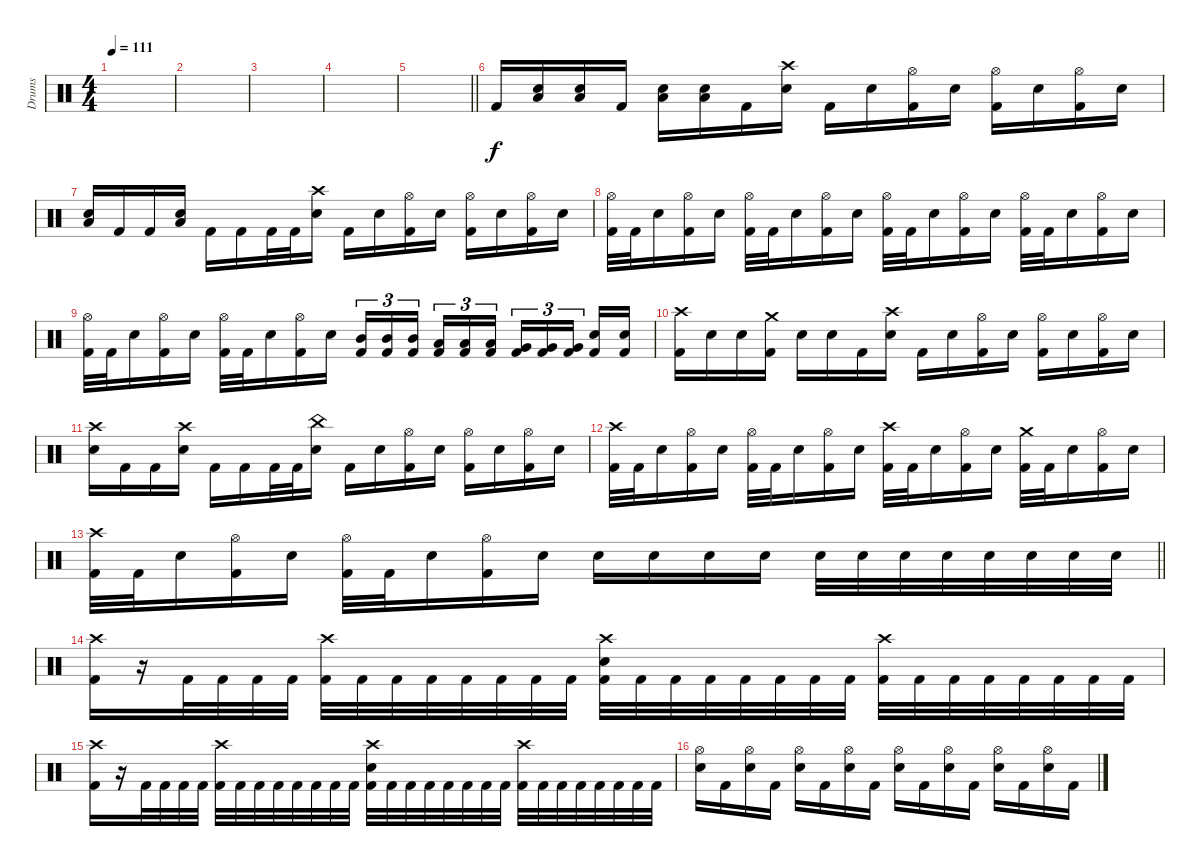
\track ("Drums" "Drums") {instrument percussion}
\staff
\articulation defaults
\ts (4 4)
\section ("" "")
\tempo 111
\clef neutral
\ks c
|
|
|
|
\barLineRight lightlight
|
\section ("" "")
"Kick (hit) 2".16 ("Low Floor Tom (hit)" "Electric Snare (hit)").16 ("Low Floor Tom (hit)" "Electric Snare (hit)").16 "Kick (hit) 2".16 ("Low Floor Tom (hit)" "Electric Snare (hit)").16 ("Low Floor Tom (hit)" "Electric Snare (hit)").16 "Kick (hit) 2".16 ("Crash high (hit)" "Electric Snare (hit)").16 "Kick (hit) 2".16 "Electric Snare (hit)".16 ("Hi-Hat (open)" "Kick (hit) 2").16 "Electric Snare (hit)".16 ("Hi-Hat (open)" "Kick (hit) 2").16 "Electric Snare (hit)".16 ("Hi-Hat (open)" "Kick (hit) 2").16 "Electric Snare (hit)".16 |
("Low Floor Tom (hit)" "Electric Snare (hit)").16 "Kick (hit) 2".16 "Kick (hit) 2".16 ("Low Floor Tom (hit)" "Electric Snare (hit)").16 "Kick (hit) 2".16 "Kick (hit) 2".16 "Kick (hit) 2".32 "Kick (hit) 2".32 ("Crash high (hit)" "Electric Snare (hit)").16 "Kick (hit) 2".16 "Electric Snare (hit)".16 ("Hi-Hat (open)" "Kick (hit) 2").16 "Electric Snare (hit)".16 ("Hi-Hat (open)" "Kick (hit) 2").16 "Electric Snare (hit)".16 ("Hi-Hat (open)" "Kick (hit) 2").16 "Electric Snare (hit)".16 |
("Hi-Hat (open)" "Kick (hit) 2").32 "Kick (hit) 2".32 "Electric Snare (hit)".16 ("Hi-Hat (open)" "Kick (hit) 2").16 "Electric Snare (hit)".16 ("Hi-Hat (open)" "Kick (hit) 2").32 "Kick (hit) 2".32 "Electric Snare (hit)".16 ("Hi-Hat (open)" "Kick (hit) 2").16 "Electric Snare (hit)".16 ("Hi-Hat (open)" "Kick (hit) 2").32 "Kick (hit) 2".32 "Electric Snare (hit)".16 ("Hi-Hat (open)" "Kick (hit) 2").16 "Electric Snare (hit)".16 ("Hi-Hat (open)" "Kick (hit) 2").32 "Kick (hit) 2".32 "Electric Snare (hit)".16 ("Hi-Hat (open)" "Kick (hit) 2").16 "Electric Snare (hit)".16 |
("Hi-Hat (open)" "Kick (hit) 2").32 "Kick (hit) 2".32 "Electric Snare (hit)".16 ("Hi-Hat (open)" "Kick (hit) 2").16 "Electric Snare (hit)".16 ("Hi-Hat (open)" "Kick (hit) 2").32 "Kick (hit) 2".32 "Electric Snare (hit)".16 ("Hi-Hat (open)" "Kick (hit) 2").16 "Electric Snare (hit)".16 ("Mid Tom (hit)" "Kick (hit) 2").16{tu (3 2)} ("Mid Tom (hit)" "Kick (hit) 2").16{tu (3 2)} ("Mid Tom (hit)" "Kick (hit) 2").16{tu (3 2) beam splitsecondary} ("Low Tom (hit)" "Kick (hit) 2").16{tu (3 2)} ("Low Tom (hit)" "Kick (hit) 2").16{tu (3 2)} ("Low Tom (hit)" "Kick (hit) 2").16{tu (3 2)} ("Very Low Tom (hit)" "Kick (hit) 2").16{tu (3 2)} ("Very Low Tom (hit)" "Kick (hit) 2").16{tu (3 2)} ("Very Low Tom (hit)" "Kick (hit) 2").16{tu (3 2) beam splitsecondary} ("Electric Snare (hit)" "Kick (hit) 2").16 ("Electric Snare (hit)" "Kick (hit) 2").16 |
("Crash high (hit)" "Kick (hit) 2").16 "Electric Snare (hit)".16 "Electric Snare (hit)".16 ("Crash medium (hit)" "Kick (hit) 2").16 "Electric Snare (hit)".16 "Electric Snare (hit)".16 "Kick (hit) 2".16 ("Crash high (hit)" "Electric Snare (hit)").16 "Kick (hit) 2".16 "Electric Snare (hit)".16 ("Hi-Hat (open)" "Kick (hit) 2").16 "Electric Snare (hit)".16 ("Hi-Hat (open)" "Kick (hit) 2").16 "Electric Snare (hit)".16 ("Hi-Hat (open)" "Kick (hit) 2").16 "Electric Snare (hit)".16 |
("Crash high (hit)" "Electric Snare (hit)").16 "Kick (hit) 2".16 "Kick (hit) 2".16 ("Crash high (hit)" "Electric Snare (hit)").16 "Kick (hit) 2".16 "Kick (hit) 2".16 "Kick (hit) 2".32 "Kick (hit) 2".32 ("China (hit)" "Electric Snare (hit)").16 "Kick (hit) 2".16 "Electric Snare (hit)".16 ("Hi-Hat (open)" "Kick (hit) 2").16 "Electric Snare (hit)".16 ("Hi-Hat (open)" "Kick (hit) 2").16 "Electric Snare (hit)".16 ("Hi-Hat (open)" "Kick (hit) 2").16 "Electric Snare (hit)".16 |
("Crash high (hit)" "Kick (hit) 2").32 "Kick (hit) 2".32 "Electric Snare (hit)".16 ("Hi-Hat (open)" "Kick (hit) 2").16 "Electric Snare (hit)".16 ("Hi-Hat (open)" "Kick (hit) 2").32 "Kick (hit) 2".32 "Electric Snare (hit)".16 ("Hi-Hat (open)" "Kick (hit) 2").16 "Electric Snare (hit)".16 ("Crash high (hit)" "Kick (hit) 2").32 "Kick (hit) 2".32 "Electric Snare (hit)".16 ("Hi-Hat (open)" "Kick (hit) 2").16 "Electric Snare (hit)".16 ("Crash medium (hit)" "Kick (hit) 2").32 "Kick (hit) 2".32 "Electric Snare (hit)".16 ("Hi-Hat (open)" "Kick (hit) 2").16 "Electric Snare (hit)".16 |
\barLineRight lightlight
("Crash high (hit)" "Kick (hit) 2").32 "Kick (hit) 2".32 "Electric Snare (hit)".16 ("Hi-Hat (open)" "Kick (hit) 2").16 "Electric Snare (hit)".16 ("Hi-Hat (open)" "Kick (hit) 2").32 "Kick (hit) 2".32 "Electric Snare (hit)".16 ("Hi-Hat (open)" "Kick (hit) 2").16 "Electric Snare (hit)".16 "Electric Snare (hit)".16 "Electric Snare (hit)".16 "Electric Snare (hit)".16 "Electric Snare (hit)".16 "Electric Snare (hit)".32 "Electric Snare (hit)".32 "Electric Snare (hit)".32 "Electric Snare (hit)".32 "Electric Snare (hit)".32 "Electric Snare (hit)".32 "Electric Snare (hit)".32 "Electric Snare (hit)".32 |
("Crash high (hit)" "Kick (hit) 2").16 r.16 "Kick (hit) 2".32 "Kick (hit) 2".32 "Kick (hit) 2".32 "Kick (hit) 2".32 ("Crash high (hit)" "Kick (hit) 2").32 "Kick (hit) 2".32 "Kick (hit) 2".32 "Kick (hit) 2".32 "Kick (hit) 2".32 "Kick (hit) 2".32 "Kick (hit) 2".32 "Kick (hit) 2".32 ("Crash high (hit)" "Electric Snare (hit)" "Kick (hit) 2").32 "Kick (hit) 2".32 "Kick (hit) 2".32 "Kick (hit) 2".32 "Kick (hit) 2".32 "Kick (hit) 2".32 "Kick (hit) 2".32 "Kick (hit) 2".32 ("Crash high (hit)" "Kick (hit) 2").32 "Kick (hit) 2".32 "Kick (hit) 2".32 "Kick (hit) 2".32 "Kick (hit) 2".32 "Kick (hit) 2".32 "Kick (hit) 2".32 "Kick (hit) 2".32 |
("Crash high (hit)" "Kick (hit) 2").16 r.16 "Kick (hit) 2".32 "Kick (hit) 2".32 "Kick (hit) 2".32 "Kick (hit) 2".32 ("Crash high (hit)" "Kick (hit) 2").32 "Kick (hit) 2".32 "Kick (hit) 2".32 "Kick (hit) 2".32 "Kick (hit) 2".32 "Kick (hit) 2".32 "Kick (hit) 2".32 "Kick (hit) 2".32 ("Crash high (hit)" "Electric Snare (hit)" "Kick (hit) 2").32 "Kick (hit) 2".32 "Kick (hit) 2".32 "Kick (hit) 2".32 "Kick (hit) 2".32 "Kick (hit) 2".32 "Kick (hit) 2".32 "Kick (hit) 2".32 ("Crash high (hit)" "Kick (hit) 2").32 "Kick (hit) 2".32 "Kick (hit) 2".32 "Kick (hit) 2".32 "Kick (hit) 2".32 "Kick (hit) 2".32 "Kick (hit) 2".32 "Kick (hit) 2".32 |
("Hi-Hat (open)" "Electric Snare (hit)").16 "Kick (hit) 2".16 ("Hi-Hat (open)" "Electric Snare (hit)").16 "Kick (hit) 2".16 ("Hi-Hat (open)" "Electric Snare (hit)").16 "Kick (hit) 2".16 ("Hi-Hat (open)" "Electric Snare (hit)").16 "Kick (hit) 2".16 ("Hi-Hat (open)" "Electric Snare (hit)").16 "Kick (hit) 2".16 ("Hi-Hat (open)" "Electric Snare (hit)").16 "Kick (hit) 2".16 ("Hi-Hat (open)" "Electric Snare (hit)").16 "Kick (hit) 2".16 ("Hi-Hat (open)" "Electric Snare (hit)").16 "Kick (hit) 2".16
